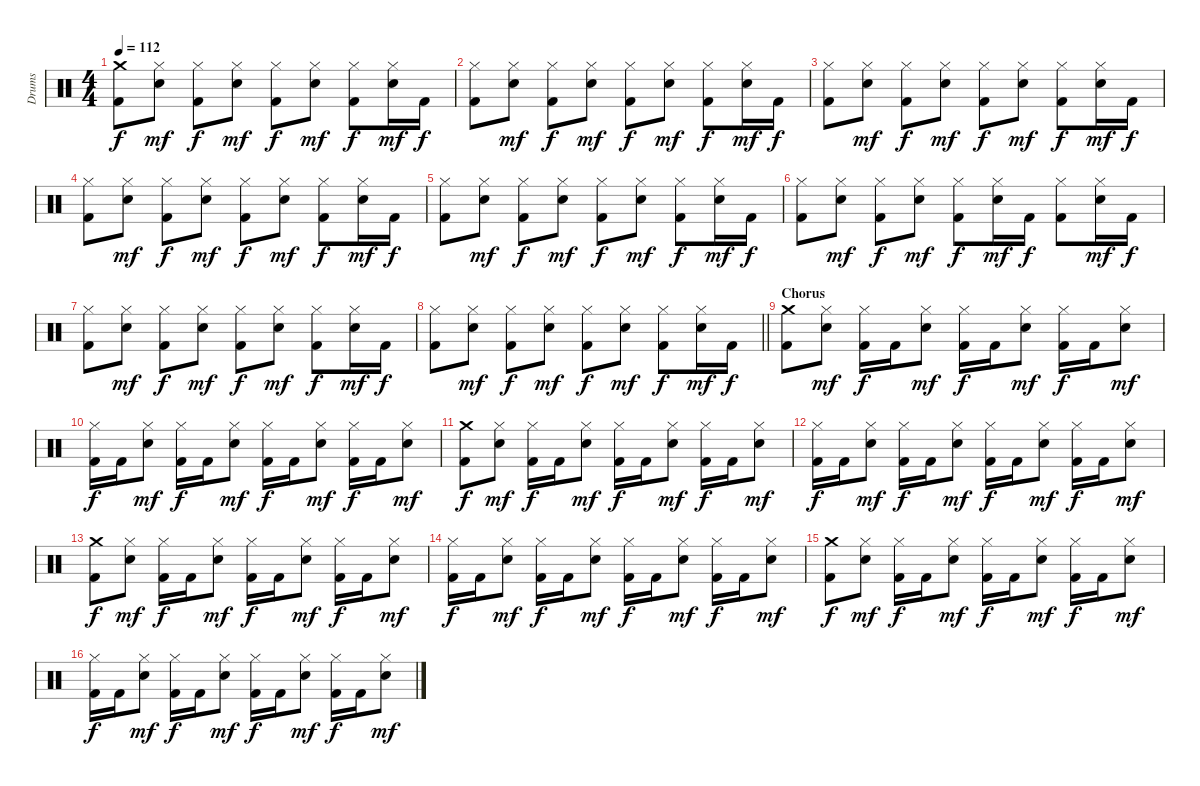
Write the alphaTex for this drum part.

\track ("Drums" "Drums") {instrument percussion}
\staff {score}
\articulation defaults
\ts (4 4)
\tempo 112
\clef neutral
\ks c
("Crash medium (hit)" "Kick (hit) 2").8{dy f} ("Hi-Hat (closed)" "Snare (hit) 2").8{dy mf} ("Hi-Hat (closed)" "Kick (hit) 2").8{dy f} ("Hi-Hat (closed)" "Snare (hit) 2").8{dy mf} ("Hi-Hat (closed)" "Kick (hit) 2").8{dy f} ("Hi-Hat (closed)" "Snare (hit) 2").8{dy mf} ("Hi-Hat (closed)" "Kick (hit) 2").8{dy f} ("Hi-Hat (closed)" "Snare (hit) 2").16{dy mf} "Kick (hit) 2".16{dy f} |
("Hi-Hat (closed)" "Kick (hit) 2").8 ("Hi-Hat (closed)" "Snare (hit) 2").8{dy mf} ("Hi-Hat (closed)" "Kick (hit) 2").8{dy f} ("Hi-Hat (closed)" "Snare (hit) 2").8{dy mf} ("Hi-Hat (closed)" "Kick (hit) 2").8{dy f} ("Hi-Hat (closed)" "Snare (hit) 2").8{dy mf} ("Hi-Hat (closed)" "Kick (hit) 2").8{dy f} ("Hi-Hat (closed)" "Snare (hit) 2").16{dy mf} "Kick (hit) 2".16{dy f} |
("Hi-Hat (closed)" "Kick (hit) 2").8 ("Hi-Hat (closed)" "Snare (hit) 2").8{dy mf} ("Hi-Hat (closed)" "Kick (hit) 2").8{dy f} ("Hi-Hat (closed)" "Snare (hit) 2").8{dy mf} ("Hi-Hat (closed)" "Kick (hit) 2").8{dy f} ("Hi-Hat (closed)" "Snare (hit) 2").8{dy mf} ("Hi-Hat (closed)" "Kick (hit) 2").8{dy f} ("Hi-Hat (closed)" "Snare (hit) 2").16{dy mf} "Kick (hit) 2".16{dy f} |
("Hi-Hat (closed)" "Kick (hit) 2").8 ("Hi-Hat (closed)" "Snare (hit) 2").8{dy mf} ("Hi-Hat (closed)" "Kick (hit) 2").8{dy f} ("Hi-Hat (closed)" "Snare (hit) 2").8{dy mf} ("Hi-Hat (closed)" "Kick (hit) 2").8{dy f} ("Hi-Hat (closed)" "Snare (hit) 2").8{dy mf} ("Hi-Hat (closed)" "Kick (hit) 2").8{dy f} ("Hi-Hat (closed)" "Snare (hit) 2").16{dy mf} "Kick (hit) 2".16{dy f} |
("Hi-Hat (closed)" "Kick (hit) 2").8 ("Hi-Hat (closed)" "Snare (hit) 2").8{dy mf} ("Hi-Hat (closed)" "Kick (hit) 2").8{dy f} ("Hi-Hat (closed)" "Snare (hit) 2").8{dy mf} ("Hi-Hat (closed)" "Kick (hit) 2").8{dy f} ("Hi-Hat (closed)" "Snare (hit) 2").8{dy mf} ("Hi-Hat (closed)" "Kick (hit) 2").8{dy f} ("Hi-Hat (closed)" "Snare (hit) 2").16{dy mf} "Kick (hit) 2".16{dy f} |
("Hi-Hat (closed)" "Kick (hit) 2").8 ("Hi-Hat (closed)" "Snare (hit) 2").8{dy mf} ("Hi-Hat (closed)" "Kick (hit) 2").8{dy f} ("Hi-Hat (closed)" "Snare (hit) 2").8{dy mf} ("Hi-Hat (closed)" "Kick (hit) 2").8{dy f} ("Hi-Hat (closed)" "Snare (hit) 2").16{dy mf} "Kick (hit) 2".16{dy f} ("Hi-Hat (closed)" "Kick (hit) 2").8 ("Hi-Hat (closed)" "Snare (hit) 2").16{dy mf} "Kick (hit) 2".16{dy f} |
("Hi-Hat (closed)" "Kick (hit) 2").8 ("Hi-Hat (closed)" "Snare (hit) 2").8{dy mf} ("Hi-Hat (closed)" "Kick (hit) 2").8{dy f} ("Hi-Hat (closed)" "Snare (hit) 2").8{dy mf} ("Hi-Hat (closed)" "Kick (hit) 2").8{dy f} ("Hi-Hat (closed)" "Snare (hit) 2").8{dy mf} ("Hi-Hat (closed)" "Kick (hit) 2").8{dy f} ("Hi-Hat (closed)" "Snare (hit) 2").16{dy mf} "Kick (hit) 2".16{dy f} |
\barLineRight lightlight
("Hi-Hat (closed)" "Kick (hit) 2").8 ("Hi-Hat (closed)" "Snare (hit) 2").8{dy mf} ("Hi-Hat (closed)" "Kick (hit) 2").8{dy f} ("Hi-Hat (closed)" "Snare (hit) 2").8{dy mf} ("Hi-Hat (closed)" "Kick (hit) 2").8{dy f} ("Hi-Hat (closed)" "Snare (hit) 2").8{dy mf} ("Hi-Hat (closed)" "Kick (hit) 2").8{dy f} ("Hi-Hat (closed)" "Snare (hit) 2").16{dy mf} "Kick (hit) 2".16{dy f} |
\section ("" "Chorus")
("Crash medium (hit)" "Kick (hit) 2").8 ("Hi-Hat (closed)" "Snare (hit) 2").8{dy mf} ("Hi-Hat (closed)" "Kick (hit) 2").16{dy f} "Kick (hit) 2".16 ("Hi-Hat (closed)" "Snare (hit) 2").8{dy mf} ("Hi-Hat (closed)" "Kick (hit) 2").16{dy f} "Kick (hit) 2".16 ("Hi-Hat (closed)" "Snare (hit) 2").8{dy mf} ("Hi-Hat (closed)" "Kick (hit) 2").16{dy f} "Kick (hit) 2".16 ("Hi-Hat (closed)" "Snare (hit) 2").8{dy mf} |
("Hi-Hat (closed)" "Kick (hit) 2").16{dy f} "Kick (hit) 2".16 ("Hi-Hat (closed)" "Snare (hit) 2").8{dy mf} ("Hi-Hat (closed)" "Kick (hit) 2").16{dy f} "Kick (hit) 2".16 ("Hi-Hat (closed)" "Snare (hit) 2").8{dy mf} ("Hi-Hat (closed)" "Kick (hit) 2").16{dy f} "Kick (hit) 2".16 ("Hi-Hat (closed)" "Snare (hit) 2").8{dy mf} ("Hi-Hat (closed)" "Kick (hit) 2").16{dy f} "Kick (hit) 2".16 ("Hi-Hat (closed)" "Snare (hit) 2").8{dy mf} |
("Crash medium (hit)" "Kick (hit) 2").8{dy f} ("Hi-Hat (closed)" "Snare (hit) 2").8{dy mf} ("Hi-Hat (closed)" "Kick (hit) 2").16{dy f} "Kick (hit) 2".16 ("Hi-Hat (closed)" "Snare (hit) 2").8{dy mf} ("Hi-Hat (closed)" "Kick (hit) 2").16{dy f} "Kick (hit) 2".16 ("Hi-Hat (closed)" "Snare (hit) 2").8{dy mf} ("Hi-Hat (closed)" "Kick (hit) 2").16{dy f} "Kick (hit) 2".16 ("Hi-Hat (closed)" "Snare (hit) 2").8{dy mf} |
("Hi-Hat (closed)" "Kick (hit) 2").16{dy f} "Kick (hit) 2".16 ("Hi-Hat (closed)" "Snare (hit) 2").8{dy mf} ("Hi-Hat (closed)" "Kick (hit) 2").16{dy f} "Kick (hit) 2".16 ("Hi-Hat (closed)" "Snare (hit) 2").8{dy mf} ("Hi-Hat (closed)" "Kick (hit) 2").16{dy f} "Kick (hit) 2".16 ("Hi-Hat (closed)" "Snare (hit) 2").8{dy mf} ("Hi-Hat (closed)" "Kick (hit) 2").16{dy f} "Kick (hit) 2".16 ("Hi-Hat (closed)" "Snare (hit) 2").8{dy mf} |
("Crash medium (hit)" "Kick (hit) 2").8{dy f} ("Hi-Hat (closed)" "Snare (hit) 2").8{dy mf} ("Hi-Hat (closed)" "Kick (hit) 2").16{dy f} "Kick (hit) 2".16 ("Hi-Hat (closed)" "Snare (hit) 2").8{dy mf} ("Hi-Hat (closed)" "Kick (hit) 2").16{dy f} "Kick (hit) 2".16 ("Hi-Hat (closed)" "Snare (hit) 2").8{dy mf} ("Hi-Hat (closed)" "Kick (hit) 2").16{dy f} "Kick (hit) 2".16 ("Hi-Hat (closed)" "Snare (hit) 2").8{dy mf} |
("Hi-Hat (closed)" "Kick (hit) 2").16{dy f} "Kick (hit) 2".16 ("Hi-Hat (closed)" "Snare (hit) 2").8{dy mf} ("Hi-Hat (closed)" "Kick (hit) 2").16{dy f} "Kick (hit) 2".16 ("Hi-Hat (closed)" "Snare (hit) 2").8{dy mf} ("Hi-Hat (closed)" "Kick (hit) 2").16{dy f} "Kick (hit) 2".16 ("Hi-Hat (closed)" "Snare (hit) 2").8{dy mf} ("Hi-Hat (closed)" "Kick (hit) 2").16{dy f} "Kick (hit) 2".16 ("Hi-Hat (closed)" "Snare (hit) 2").8{dy mf} |
("Crash medium (hit)" "Kick (hit) 2").8{dy f} ("Hi-Hat (closed)" "Snare (hit) 2").8{dy mf} ("Hi-Hat (closed)" "Kick (hit) 2").16{dy f} "Kick (hit) 2".16 ("Hi-Hat (closed)" "Snare (hit) 2").8{dy mf} ("Hi-Hat (closed)" "Kick (hit) 2").16{dy f} "Kick (hit) 2".16 ("Hi-Hat (closed)" "Snare (hit) 2").8{dy mf} ("Hi-Hat (closed)" "Kick (hit) 2").16{dy f} "Kick (hit) 2".16 ("Hi-Hat (closed)" "Snare (hit) 2").8{dy mf} |
("Hi-Hat (closed)" "Kick (hit) 2").16{dy f} "Kick (hit) 2".16 ("Hi-Hat (closed)" "Snare (hit) 2").8{dy mf} ("Hi-Hat (closed)" "Kick (hit) 2").16{dy f} "Kick (hit) 2".16 ("Hi-Hat (closed)" "Snare (hit) 2").8{dy mf} ("Hi-Hat (closed)" "Kick (hit) 2").16{dy f} "Kick (hit) 2".16 ("Hi-Hat (closed)" "Snare (hit) 2").8{dy mf} ("Hi-Hat (closed)" "Kick (hit) 2").16{dy f} "Kick (hit) 2".16 ("Hi-Hat (closed)" "Snare (hit) 2").8{dy mf}
